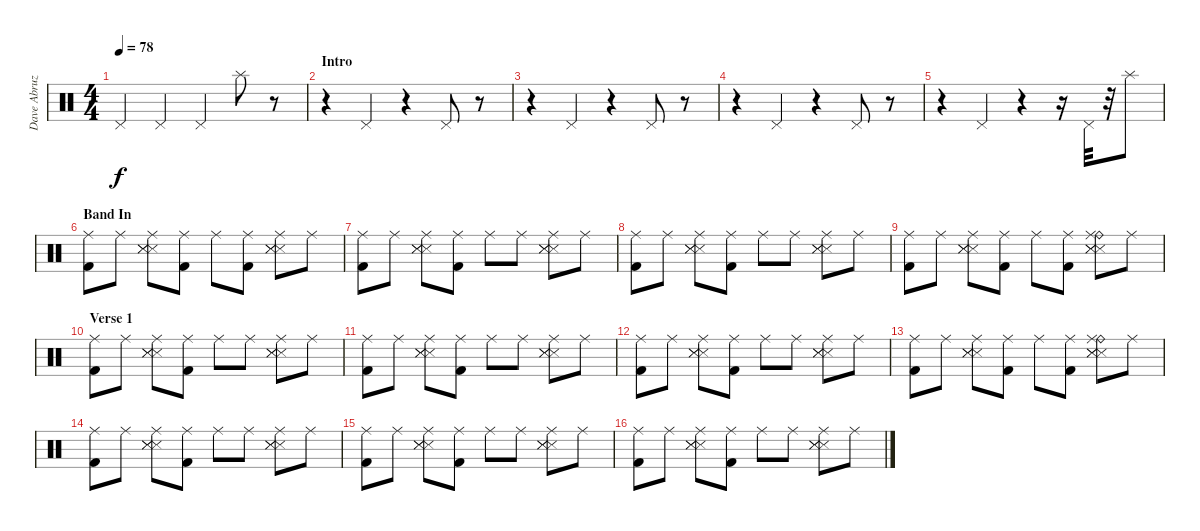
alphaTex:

\track ("Dave Abruzzese (live)" "Dave Abruz") {instrument percussion}
\staff {score}
\articulation defaults
\ts (4 4)
\tempo 78
\clef neutral
\ks c "Pedal Hi-Hat (hit)".4{dy f} "Pedal Hi-Hat (hit)".4 "Pedal Hi-Hat (hit)".4 "Splash (hit)".8
r.8 |
\section ("" "Intro")
r.4 "Pedal Hi-Hat (hit)".4 r.4 "Pedal Hi-Hat (hit)".8 r.8 |
r.4 "Pedal Hi-Hat (hit)".4 r.4 "Pedal Hi-Hat (hit)".8 r.8 |
r.4 "Pedal Hi-Hat (hit)".4 r.4 "Pedal Hi-Hat (hit)".8 r.8 |
r.4 "Pedal Hi-Hat (hit)".4 r.4 r.16 "Pedal Hi-Hat (hit)".32 r.32 "Splash (hit)".8 |
\section ("" "Band In")
("Ride (middle)" "Kick (hit) 2").8 "Ride (middle)".8 ("Ride (middle)" "Snare (side stick) 3" "Snare (side stick) 3" "Snare (side stick) 3").8 ("Ride (middle)" "Kick (hit) 2").8 "Ride (middle)".8 ("Ride (middle)" "Kick (hit) 2").8 ("Ride (middle)" "Snare (side stick) 3" "Snare (side stick) 3" "Snare (side stick) 3").8 "Ride (middle)".8 |
("Ride (middle)" "Kick (hit) 2").8 "Ride (middle)".8 ("Ride (middle)" "Snare (side stick) 3" "Snare (side stick) 3" "Snare (side stick) 3").8 ("Ride (middle)" "Kick (hit) 2").8 "Ride (middle)".8 "Ride (middle)".8 ("Ride (middle)" "Snare (side stick) 3" "Snare (side stick) 3" "Snare (side stick) 3").8 "Ride (middle)".8 |
("Ride (middle)" "Kick (hit) 2").8 "Ride (middle)".8 ("Ride (middle)" "Snare (side stick) 3" "Snare (side stick) 3" "Snare (side stick) 3").8 ("Ride (middle)" "Kick (hit) 2").8 "Ride (middle)".8 "Ride (middle)".8 ("Ride (middle)" "Snare (side stick) 3" "Snare (side stick) 3" "Snare (side stick) 3").8 "Ride (middle)".8 |
("Ride (middle)" "Kick (hit) 2").8 "Ride (middle)".8 ("Ride (middle)" "Snare (side stick) 3" "Snare (side stick) 3" "Snare (side stick) 3").8 ("Ride (middle)" "Kick (hit) 2").8 "Ride (middle)".8 ("Ride (middle)" "Kick (hit) 2").8 ("Ride (bell)" "Ride (middle)" "Snare (side stick) 3" "Snare (side stick) 3" "Snare (side stick) 3").8 "Ride (middle)".8 |
\section ("" "Verse 1")
("Ride (middle)" "Kick (hit) 2").8 "Ride (middle)".8 ("Ride (middle)" "Snare (side stick) 3" "Snare (side stick) 3" "Snare (side stick) 3").8 ("Ride (middle)" "Kick (hit) 2").8 "Ride (middle)".8 "Ride (middle)".8 ("Ride (middle)" "Snare (side stick) 3" "Snare (side stick) 3" "Snare (side stick) 3").8 "Ride (middle)".8 |
("Ride (middle)" "Kick (hit) 2").8 "Ride (middle)".8 ("Ride (middle)" "Snare (side stick) 3" "Snare (side stick) 3" "Snare (side stick) 3").8 ("Ride (middle)" "Kick (hit) 2").8 "Ride (middle)".8 "Ride (middle)".8 ("Ride (middle)" "Snare (side stick) 3" "Snare (side stick) 3" "Snare (side stick) 3").8 "Ride (middle)".8 |
("Ride (middle)" "Kick (hit) 2").8 "Ride (middle)".8 ("Ride (middle)" "Snare (side stick) 3" "Snare (side stick) 3" "Snare (side stick) 3").8 ("Ride (middle)" "Kick (hit) 2").8 "Ride (middle)".8 "Ride (middle)".8 ("Ride (middle)" "Snare (side stick) 3" "Snare (side stick) 3" "Snare (side stick) 3").8 "Ride (middle)".8 |
("Ride (middle)" "Kick (hit) 2").8 "Ride (middle)".8 ("Ride (middle)" "Snare (side stick) 3" "Snare (side stick) 3" "Snare (side stick) 3").8 ("Ride (middle)" "Kick (hit) 2").8 "Ride (middle)".8 ("Ride (middle)" "Kick (hit) 2").8 ("Ride (bell)" "Ride (middle)" "Snare (side stick) 3" "Snare (side stick) 3" "Snare (side stick) 3").8 "Ride (middle)".8 |
("Ride (middle)" "Kick (hit) 2").8 "Ride (middle)".8 ("Ride (middle)" "Snare (side stick) 3" "Snare (side stick) 3" "Snare (side stick) 3").8 ("Ride (middle)" "Kick (hit) 2").8 "Ride (middle)".8 "Ride (middle)".8 ("Ride (middle)" "Snare (side stick) 3" "Snare (side stick) 3" "Snare (side stick) 3").8 "Ride (middle)".8 |
("Ride (middle)" "Kick (hit) 2").8 "Ride (middle)".8 ("Ride (middle)" "Snare (side stick) 3" "Snare (side stick) 3" "Snare (side stick) 3").8 ("Ride (middle)" "Kick (hit) 2").8 "Ride (middle)".8 "Ride (middle)".8 ("Ride (middle)" "Snare (side stick) 3" "Snare (side stick) 3" "Snare (side stick) 3").8 "Ride (middle)".8 |
("Ride (middle)" "Kick (hit) 2").8 "Ride (middle)".8 ("Ride (middle)" "Snare (side stick) 3" "Snare (side stick) 3" "Snare (side stick) 3").8 ("Ride (middle)" "Kick (hit) 2").8 "Ride (middle)".8 "Ride (middle)".8 ("Ride (middle)" "Snare (side stick) 3" "Snare (side stick) 3" "Snare (side stick) 3").8 "Ride (middle)".8
